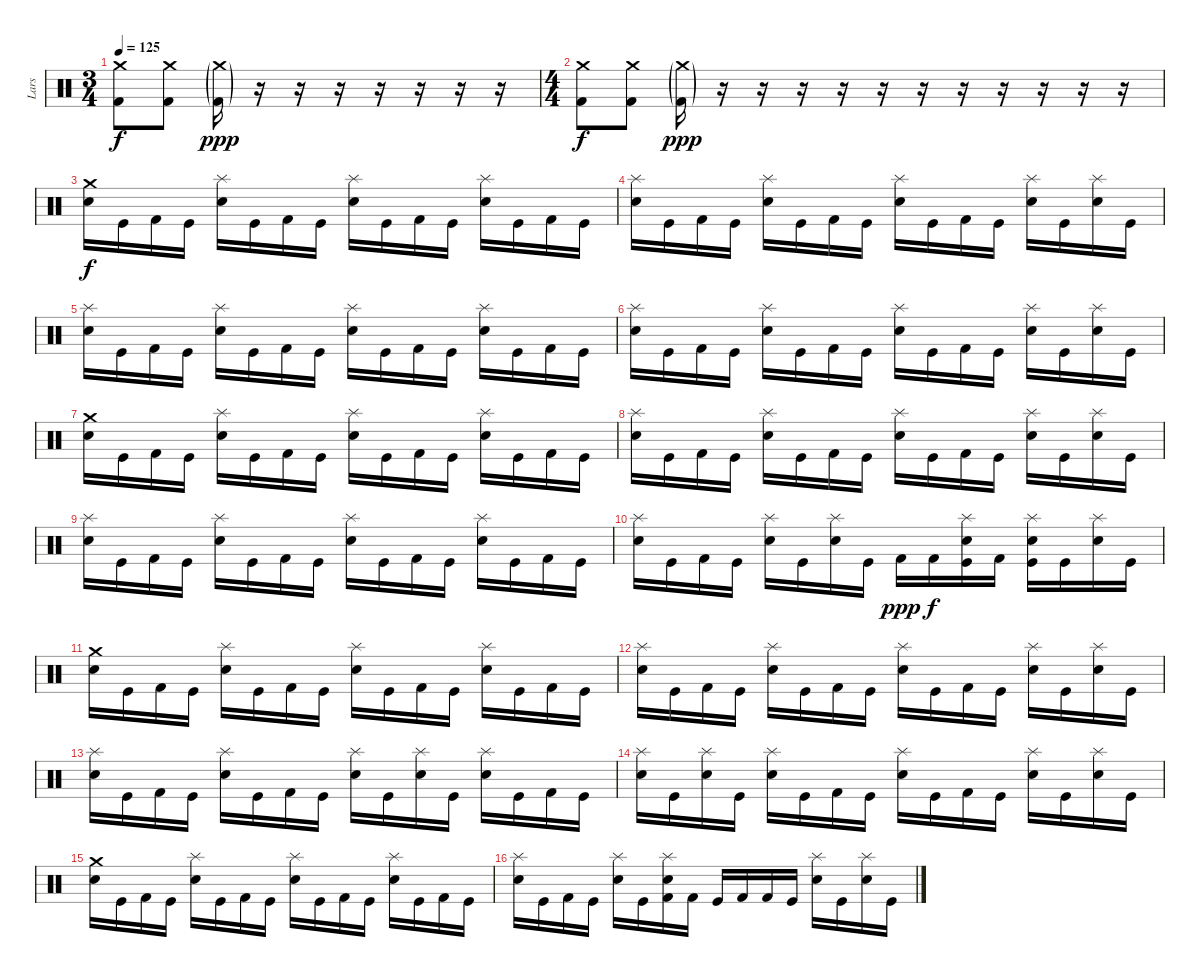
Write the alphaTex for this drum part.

\track ("Lars" "Lars") {instrument percussion}
\staff {score}
\articulation defaults
\ts (3 4)
\tempo 125
\clef neutral
\ks c
("Crash medium (hit)" "Kick (hit) 2").8{dy f} ("Crash medium (hit)" "Kick (hit) 2").8 ("Crash medium (hit)"{g} "Kick (hit) 2"{g}).16{dy ppp} r.16 r.16 r.16 r.16 r.16 r.16 r.16 |
\ts (4 4)
("Crash medium (hit)" "Kick (hit) 2").8{dy f} ("Crash medium (hit)" "Kick (hit) 2").8 ("Crash medium (hit)"{g} "Kick (hit) 2"{g}).16{dy ppp} r.16 r.16 r.16 r.16 r.16 r.16 r.16 r.16 r.16 r.16 r.16 |
("Crash medium (hit)" "Snare (hit) 2").16{dy f} "Kick (hit)".16 "Kick (hit) 2".16 "Kick (hit)".16 ("Splash (hit)" "Snare (hit) 2").16 "Kick (hit)".16 "Kick (hit) 2".16 "Kick (hit)".16 ("Splash (hit)" "Snare (hit) 2").16 "Kick (hit)".16 "Kick (hit) 2".16 "Kick (hit)".16 ("Splash (hit)" "Snare (hit) 2").16 "Kick (hit)".16 "Kick (hit) 2".16 "Kick (hit)".16 |
("Splash (hit)" "Snare (hit) 2").16 "Kick (hit)".16 "Kick (hit) 2".16 "Kick (hit)".16 ("Splash (hit)" "Snare (hit) 2").16 "Kick (hit)".16 "Kick (hit) 2".16 "Kick (hit)".16 ("Splash (hit)" "Snare (hit) 2").16 "Kick (hit)".16 "Kick (hit) 2".16 "Kick (hit)".16 ("Splash (hit)" "Snare (hit) 2").16 "Kick (hit)".16 ("Splash (hit)" "Snare (hit) 2").16 "Kick (hit)".16 |
("Splash (hit)" "Snare (hit) 2").16 "Kick (hit)".16 "Kick (hit) 2".16 "Kick (hit)".16 ("Splash (hit)" "Snare (hit) 2").16 "Kick (hit)".16 "Kick (hit) 2".16 "Kick (hit)".16 ("Splash (hit)" "Snare (hit) 2").16 "Kick (hit)".16 "Kick (hit) 2".16 "Kick (hit)".16 ("Splash (hit)" "Snare (hit) 2").16 "Kick (hit)".16 "Kick (hit) 2".16 "Kick (hit)".16 |
("Splash (hit)" "Snare (hit) 2").16 "Kick (hit)".16 "Kick (hit) 2".16 "Kick (hit)".16 ("Splash (hit)" "Snare (hit) 2").16 "Kick (hit)".16 "Kick (hit) 2".16 "Kick (hit)".16 ("Splash (hit)" "Snare (hit) 2").16 "Kick (hit)".16 "Kick (hit) 2".16 "Kick (hit)".16 ("Splash (hit)" "Snare (hit) 2").16 "Kick (hit)".16 ("Splash (hit)" "Snare (hit) 2").16 "Kick (hit)".16 |
("Crash medium (hit)" "Snare (hit) 2").16 "Kick (hit)".16 "Kick (hit) 2".16 "Kick (hit)".16 ("Splash (hit)" "Snare (hit) 2").16 "Kick (hit)".16 "Kick (hit) 2".16 "Kick (hit)".16 ("Splash (hit)" "Snare (hit) 2").16 "Kick (hit)".16 "Kick (hit) 2".16 "Kick (hit)".16 ("Splash (hit)" "Snare (hit) 2").16 "Kick (hit)".16 "Kick (hit) 2".16 "Kick (hit)".16 |
("Splash (hit)" "Snare (hit) 2").16 "Kick (hit)".16 "Kick (hit) 2".16 "Kick (hit)".16 ("Splash (hit)" "Snare (hit) 2").16 "Kick (hit)".16 "Kick (hit) 2".16 "Kick (hit)".16 ("Splash (hit)" "Snare (hit) 2").16 "Kick (hit)".16 "Kick (hit) 2".16 "Kick (hit)".16 ("Splash (hit)" "Snare (hit) 2").16 "Kick (hit)".16 ("Splash (hit)" "Snare (hit) 2").16 "Kick (hit)".16 |
("Splash (hit)" "Snare (hit) 2").16 "Kick (hit)".16 "Kick (hit) 2".16 "Kick (hit)".16 ("Splash (hit)" "Snare (hit) 2").16 "Kick (hit)".16 "Kick (hit) 2".16 "Kick (hit)".16 ("Splash (hit)" "Snare (hit) 2").16 "Kick (hit)".16 "Kick (hit) 2".16 "Kick (hit)".16 ("Splash (hit)" "Snare (hit) 2").16 "Kick (hit)".16 "Kick (hit) 2".16 "Kick (hit)".16 |
("Splash (hit)" "Snare (hit) 2").16 "Kick (hit)".16 "Kick (hit) 2".16 "Kick (hit)".16 ("Splash (hit)" "Snare (hit) 2").16 "Kick (hit)".16 ("Splash (hit)" "Snare (hit) 2").16 "Kick (hit)".16 "Kick (hit) 2".16{dy ppp} "Kick (hit) 2".16{dy f} ("Splash (hit)" "Snare (hit) 2" "Kick (hit)").16 "Kick (hit) 2".16 ("Splash (hit)" "Snare (hit) 2" "Kick (hit)").16 "Kick (hit)".16 ("Splash (hit)" "Snare (hit) 2").16 "Kick (hit)".16 |
("Crash medium (hit)" "Snare (hit) 2").16 "Kick (hit)".16 "Kick (hit) 2".16 "Kick (hit)".16 ("Splash (hit)" "Snare (hit) 2").16 "Kick (hit)".16 "Kick (hit) 2".16 "Kick (hit)".16 ("Splash (hit)" "Snare (hit) 2").16 "Kick (hit)".16 "Kick (hit) 2".16 "Kick (hit)".16 ("Splash (hit)" "Snare (hit) 2").16 "Kick (hit)".16 "Kick (hit) 2".16 "Kick (hit)".16 |
("Splash (hit)" "Snare (hit) 2").16 "Kick (hit)".16 "Kick (hit) 2".16 "Kick (hit)".16 ("Splash (hit)" "Snare (hit) 2").16 "Kick (hit)".16 "Kick (hit) 2".16 "Kick (hit)".16 ("Splash (hit)" "Snare (hit) 2").16 "Kick (hit)".16 "Kick (hit) 2".16 "Kick (hit)".16 ("Splash (hit)" "Snare (hit) 2").16 "Kick (hit)".16 ("Splash (hit)" "Snare (hit) 2").16 "Kick (hit)".16 |
("Splash (hit)" "Snare (hit) 2").16 "Kick (hit)".16 "Kick (hit) 2".16 "Kick (hit)".16 ("Splash (hit)" "Snare (hit) 2").16 "Kick (hit)".16 "Kick (hit) 2".16 "Kick (hit)".16 ("Splash (hit)" "Snare (hit) 2").16 "Kick (hit)".16 ("Splash (hit)" "Snare (hit) 2").16 "Kick (hit)".16 ("Splash (hit)" "Snare (hit) 2").16 "Kick (hit)".16 "Kick (hit) 2".16 "Kick (hit)".16 |
("Splash (hit)" "Snare (hit) 2").16 "Kick (hit)".16 ("Splash (hit)" "Snare (hit) 2").16 "Kick (hit)".16 ("Splash (hit)" "Snare (hit) 2").16 "Kick (hit)".16 "Kick (hit) 2".16 "Kick (hit)".16 ("Splash (hit)" "Snare (hit) 2").16 "Kick (hit)".16 "Kick (hit) 2".16 "Kick (hit)".16 ("Splash (hit)" "Snare (hit) 2").16 "Kick (hit)".16 ("Splash (hit)" "Snare (hit) 2").16 "Kick (hit)".16 |
("Crash medium (hit)" "Snare (hit) 2").16 "Kick (hit)".16 "Kick (hit) 2".16 "Kick (hit)".16 ("Splash (hit)" "Snare (hit) 2").16 "Kick (hit)".16 "Kick (hit) 2".16 "Kick (hit)".16 ("Splash (hit)" "Snare (hit) 2").16 "Kick (hit)".16 "Kick (hit) 2".16 "Kick (hit)".16 ("Splash (hit)" "Snare (hit) 2").16 "Kick (hit)".16 "Kick (hit) 2".16 "Kick (hit)".16 |
("Splash (hit)" "Snare (hit) 2").16 "Kick (hit)".16 "Kick (hit) 2".16 "Kick (hit)".16 ("Splash (hit)" "Snare (hit) 2").16 "Kick (hit)".16 ("Splash (hit)" "Snare (hit) 2" "Kick (hit) 2").16 "Kick (hit) 2".16 "Kick (hit)".16 "Kick (hit) 2".16 "Kick (hit) 2".16 "Kick (hit)".16 ("Splash (hit)" "Snare (hit) 2").16 "Kick (hit)".16 ("Splash (hit)" "Snare (hit) 2").16 "Kick (hit)".16
